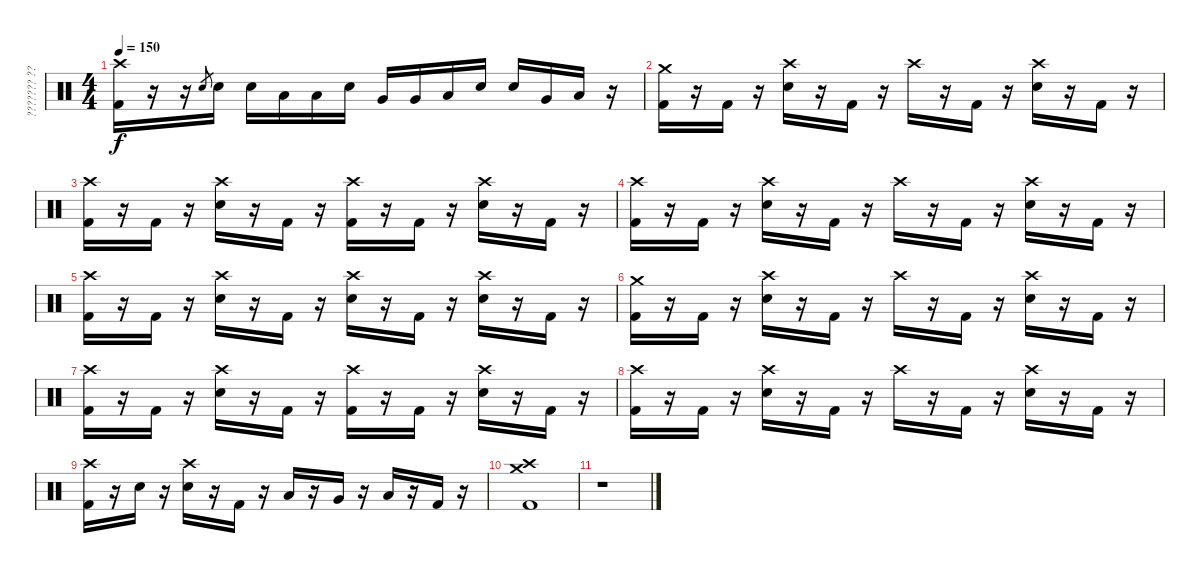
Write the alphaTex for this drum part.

\track ("??????? ?????????" "??????? ??") {instrument percussion}
\staff {score}
\articulation defaults
\ts (4 4)
\tempo 150
\clef neutral
\ks c
("Crash high (hit)" "Kick (hit) 2").16{dy f} r.16 r.16 "Electric Snare (hit)".8{gr} "Electric Snare (hit)".16 "Electric Snare (hit)".16 "Low Tom (hit)".16 "Low Tom (hit)".16 "Electric Snare (hit)".16 "Very Low Tom (hit)".16 "Very Low Tom (hit)".16 "Low Tom (hit)".16 "Electric Snare (hit)".16 "Electric Snare (hit)".16 "Very Low Tom (hit)".16 "Low Tom (hit)".16 r.16 |
("Crash medium (hit)" "Kick (hit) 2").16 r.16 "Kick (hit) 2".16 r.16 ("Crash high (hit)" "Electric Snare (hit)").16 r.16 "Kick (hit) 2".16 r.16 "Crash high (hit)".16 r.16 "Kick (hit) 2".16 r.16 ("Crash high (hit)" "Electric Snare (hit)").16 r.16 "Kick (hit) 2".16 r.16 |
("Crash high (hit)" "Kick (hit) 2").16 r.16 "Kick (hit) 2".16 r.16 ("Crash high (hit)" "Electric Snare (hit)").16 r.16 "Kick (hit) 2".16 r.16 ("Crash high (hit)" "Kick (hit) 2").16 r.16 "Kick (hit) 2".16 r.16 ("Crash high (hit)" "Electric Snare (hit)").16 r.16 "Kick (hit) 2".16 r.16 |
("Crash high (hit)" "Kick (hit) 2").16 r.16 "Kick (hit) 2".16 r.16 ("Crash high (hit)" "Electric Snare (hit)").16 r.16 "Kick (hit) 2".16 r.16 "Crash high (hit)".16 r.16 "Kick (hit) 2".16 r.16 ("Crash high (hit)" "Electric Snare (hit)").16 r.16 "Kick (hit) 2".16 r.16 |
("Crash high (hit)" "Kick (hit) 2").16 r.16 "Kick (hit) 2".16 r.16 ("Crash high (hit)" "Electric Snare (hit)").16 r.16 "Kick (hit) 2".16 r.16 ("Crash high (hit)" "Electric Snare (hit)").16 r.16 "Kick (hit) 2".16 r.16 ("Crash high (hit)" "Electric Snare (hit)").16 r.16 "Kick (hit) 2".16 r.16 |
("Crash medium (hit)" "Kick (hit) 2").16 r.16 "Kick (hit) 2".16 r.16 ("Crash high (hit)" "Electric Snare (hit)").16 r.16 "Kick (hit) 2".16 r.16 "Crash high (hit)".16 r.16 "Kick (hit) 2".16 r.16 ("Crash high (hit)" "Electric Snare (hit)").16 r.16 "Kick (hit) 2".16 r.16 |
("Crash high (hit)" "Kick (hit) 2").16 r.16 "Kick (hit) 2".16 r.16 ("Crash high (hit)" "Electric Snare (hit)").16 r.16 "Kick (hit) 2".16 r.16 ("Crash high (hit)" "Kick (hit) 2").16 r.16 "Kick (hit) 2".16 r.16 ("Crash high (hit)" "Electric Snare (hit)").16 r.16 "Kick (hit) 2".16 r.16 |
("Crash high (hit)" "Kick (hit) 2").16 r.16 "Kick (hit) 2".16 r.16 ("Crash high (hit)" "Electric Snare (hit)").16 r.16 "Kick (hit) 2".16 r.16 "Crash high (hit)".16 r.16 "Kick (hit) 2".16 r.16 ("Crash high (hit)" "Electric Snare (hit)").16 r.16 "Kick (hit) 2".16 r.16 |
("Crash high (hit)" "Kick (hit) 2").16 r.16 "Electric Snare (hit)".16 r.16 ("Crash high (hit)" "Electric Snare (hit)").16 r.16 "Kick (hit) 2".16 r.16 "Low Tom (hit)".16 r.16 "Very Low Tom (hit)".16 r.16 "Low Floor Tom (hit)".16 r.16 "Kick (hit) 2".16 r.16 |
("Crash high (hit)" "Crash medium (hit)" "Kick (hit) 2").1 |
r.1
